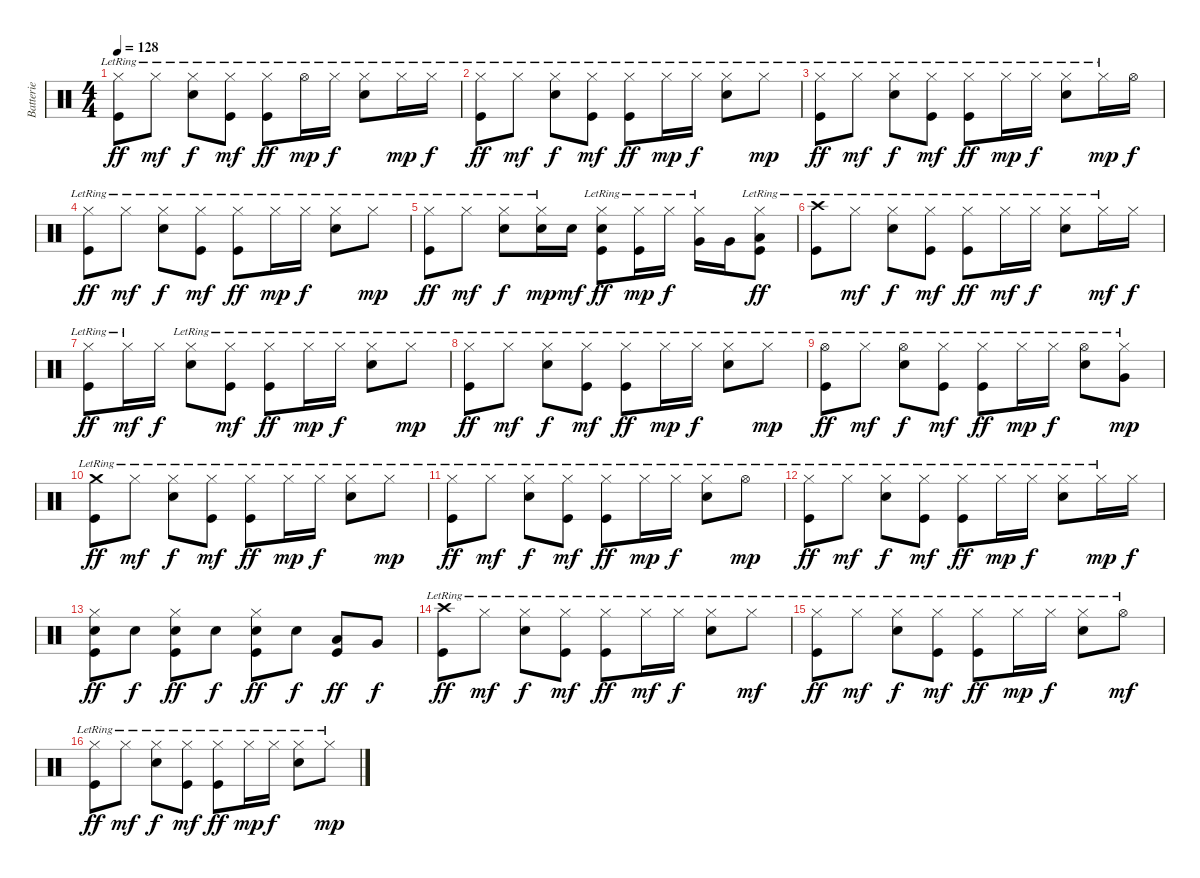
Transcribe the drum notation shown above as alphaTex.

\track ("Batterie" "Batterie") {instrument percussion}
\staff {score}
\articulation defaults
\ts (4 4)
\tempo 128
\clef neutral
\ks c
("Hi-Hat (closed)"{lr} "Kick (hit)"{lr}).8{dy ff} "Hi-Hat (closed)"{lr}.8{dy mf} ("Hi-Hat (closed)"{lr} "Snare (hit) 2"{lr}).8{dy f} ("Hi-Hat (closed)"{lr} "Kick (hit)"{lr}).8{dy mf} ("Hi-Hat (closed)"{lr} "Kick (hit)"{lr}).8{dy ff} "Hi-Hat (open)"{lr}.16{dy mp} "Hi-Hat (closed)"{lr}.16{dy f} ("Hi-Hat (closed)"{lr} "Snare (hit) 2"{lr}).8 "Hi-Hat (closed)"{lr}.16{dy mp} "Hi-Hat (closed)"{lr}.16{dy f} |
("Hi-Hat (closed)"{lr} "Kick (hit)"{lr}).8{dy ff} "Hi-Hat (closed)"{lr}.8{dy mf} ("Hi-Hat (closed)"{lr} "Snare (hit) 2"{lr}).8{dy f} ("Hi-Hat (closed)"{lr} "Kick (hit)"{lr}).8{dy mf} ("Hi-Hat (closed)"{lr} "Kick (hit)"{lr}).8{dy ff} "Hi-Hat (closed)"{lr}.16{dy mp} "Hi-Hat (closed)"{lr}.16{dy f} ("Hi-Hat (closed)"{lr} "Snare (hit) 2"{lr}).8 "Hi-Hat (closed)"{lr}.8{dy mp} |
("Hi-Hat (closed)"{lr} "Kick (hit)"{lr}).8{dy ff} "Hi-Hat (closed)"{lr}.8{dy mf} ("Hi-Hat (closed)"{lr} "Snare (hit) 2"{lr}).8{dy f} ("Hi-Hat (closed)"{lr} "Kick (hit)"{lr}).8{dy mf} ("Hi-Hat (closed)"{lr} "Kick (hit)"{lr}).8{dy ff} "Hi-Hat (closed)"{lr}.16{dy mp} "Hi-Hat (closed)"{lr}.16{dy f} ("Hi-Hat (closed)"{lr} "Snare (hit) 2"{lr}).8 "Hi-Hat (closed)"{lr}.16{dy mp} "Hi-Hat (open)".16{dy f} |
("Hi-Hat (closed)"{lr} "Kick (hit)"{lr}).8{dy ff} "Hi-Hat (closed)"{lr}.8{dy mf} ("Hi-Hat (closed)"{lr} "Snare (hit) 2"{lr}).8{dy f} ("Hi-Hat (closed)"{lr} "Kick (hit)"{lr}).8{dy mf} ("Hi-Hat (closed)"{lr} "Kick (hit)"{lr}).8{dy ff} "Hi-Hat (closed)"{lr}.16{dy mp} "Hi-Hat (closed)"{lr}.16{dy f} ("Hi-Hat (closed)"{lr} "Snare (hit) 2"{lr}).8 "Hi-Hat (closed)"{lr}.8{dy mp} |
("Hi-Hat (closed)"{lr} "Kick (hit)"{lr}).8{dy ff} "Hi-Hat (closed)"{lr}.8{dy mf} ("Hi-Hat (closed)"{lr} "Snare (hit) 2"{lr}).8{dy f} ("Hi-Hat (closed)"{lr} "Snare (hit) 2").16{dy mp} "Snare (hit) 2".16{dy mf} ("Hi-Hat (closed)"{lr} "Snare (hit) 2" "Kick (hit)"{lr}).8{dy ff} ("Hi-Hat (closed)"{lr} "Kick (hit)").16{dy mp} "Hi-Hat (closed)"{lr}.16{dy f} ("Very Low Tom (hit)" "Hi-Hat (closed)"{lr}).16 "Very Low Tom (hit)".16 ("Low Floor Tom (hit)" "Hi-Hat (closed)"{lr} "Kick (hit)"{lr}).8{dy ff} |
("Crash high (hit)"{lr} "Kick (hit)"{lr}).8 "Hi-Hat (closed)"{lr}.8{dy mf} ("Hi-Hat (closed)"{lr} "Snare (hit) 2"{lr}).8{dy f} ("Hi-Hat (closed)"{lr} "Kick (hit)"{lr}).8{dy mf} ("Hi-Hat (closed)"{lr} "Kick (hit)"{lr}).8{dy ff} "Hi-Hat (closed)"{lr}.16{dy mf} "Hi-Hat (closed)"{lr}.16{dy f} ("Hi-Hat (closed)"{lr} "Snare (hit) 2"{lr}).8 "Hi-Hat (closed)"{lr}.16{dy mf} "Hi-Hat (closed)".16{dy f} |
("Hi-Hat (closed)"{lr} "Kick (hit)"{lr}).8{dy ff} "Hi-Hat (closed)"{lr}.16{dy mf} "Hi-Hat (closed)".16{dy f} ("Hi-Hat (closed)"{lr} "Snare (hit) 2"{lr}).8 ("Hi-Hat (closed)"{lr} "Kick (hit)"{lr}).8{dy mf} ("Hi-Hat (closed)"{lr} "Kick (hit)"{lr}).8{dy ff} "Hi-Hat (closed)"{lr}.16{dy mp} "Hi-Hat (closed)"{lr}.16{dy f} ("Hi-Hat (closed)"{lr} "Snare (hit) 2"{lr}).8 "Hi-Hat (closed)"{lr}.8{dy mp} |
("Hi-Hat (closed)"{lr} "Kick (hit)"{lr}).8{dy ff} "Hi-Hat (closed)"{lr}.8{dy mf} ("Hi-Hat (closed)"{lr} "Snare (hit) 2"{lr}).8{dy f} ("Hi-Hat (closed)"{lr} "Kick (hit)"{lr}).8{dy mf} ("Hi-Hat (closed)"{lr} "Kick (hit)"{lr}).8{dy ff} "Hi-Hat (closed)"{lr}.16{dy mp} "Hi-Hat (closed)"{lr}.16{dy f} ("Hi-Hat (closed)"{lr} "Snare (hit) 2"{lr}).8 "Hi-Hat (closed)"{lr}.8{dy mp} |
("Hi-Hat (open)"{lr} "Kick (hit)"{lr}).8{dy ff} "Hi-Hat (closed)"{lr}.8{dy mf} ("Hi-Hat (open)"{lr} "Snare (hit) 2"{lr}).8{dy f} ("Hi-Hat (closed)"{lr} "Kick (hit)"{lr}).8{dy mf} ("Hi-Hat (closed)"{lr} "Kick (hit)"{lr}).8{dy ff} "Hi-Hat (closed)"{lr}.16{dy mp} "Hi-Hat (closed)"{lr}.16{dy f} ("Hi-Hat (open)"{lr} "Snare (hit) 2"{lr}).8 ("Very Low Tom (hit)" "Hi-Hat (closed)"{lr}).8{dy mp} |
("Crash medium (hit)" "Kick (hit)"{lr}).8{dy ff} "Hi-Hat (closed)"{lr}.8{dy mf} ("Hi-Hat (closed)"{lr} "Snare (hit) 2"{lr}).8{dy f} ("Hi-Hat (closed)"{lr} "Kick (hit)"{lr}).8{dy mf} ("Hi-Hat (closed)"{lr} "Kick (hit)"{lr}).8{dy ff} "Hi-Hat (closed)"{lr}.16{dy mp} "Hi-Hat (closed)"{lr}.16{dy f} ("Hi-Hat (closed)"{lr} "Snare (hit) 2"{lr}).8 "Hi-Hat (closed)"{lr}.8{dy mp} |
("Hi-Hat (closed)" "Kick (hit)"{lr}).8{dy ff} "Hi-Hat (closed)"{lr}.8{dy mf} ("Hi-Hat (closed)"{lr} "Snare (hit) 2"{lr}).8{dy f} ("Hi-Hat (closed)"{lr} "Kick (hit)"{lr}).8{dy mf} ("Hi-Hat (closed)"{lr} "Kick (hit)"{lr}).8{dy ff} "Hi-Hat (closed)"{lr}.16{dy mp} "Hi-Hat (closed)"{lr}.16{dy f} ("Hi-Hat (closed)"{lr} "Snare (hit) 2"{lr}).8 "Hi-Hat (open)"{lr}.8{dy mp} |
("Hi-Hat (closed)"{lr} "Kick (hit)"{lr}).8{dy ff} "Hi-Hat (closed)"{lr}.8{dy mf} ("Hi-Hat (closed)"{lr} "Snare (hit) 2"{lr}).8{dy f} ("Hi-Hat (closed)"{lr} "Kick (hit)"{lr}).8{dy mf} ("Hi-Hat (closed)"{lr} "Kick (hit)"{lr}).8{dy ff} "Hi-Hat (closed)"{lr}.16{dy mp} "Hi-Hat (closed)"{lr}.16{dy f} ("Hi-Hat (closed)"{lr} "Snare (hit) 2"{lr}).8 "Hi-Hat (closed)"{lr}.16{dy mp} "Hi-Hat (closed)".16{dy f} |
("Hi-Hat (closed)" "Snare (hit) 2" "Kick (hit)").8{dy ff} "Snare (hit) 2".8{dy f} ("Hi-Hat (closed)" "Snare (hit) 2" "Kick (hit)").8{dy ff} "Snare (hit) 2".8{dy f} ("Hi-Hat (closed)" "Snare (hit) 2" "Kick (hit)").8{dy ff} "Snare (hit) 2".8{dy f} ("Low Tom (hit)" "Kick (hit)").8{dy ff} "Very Low Tom (hit)".8{dy f} |
("Crash high (hit)"{lr} "Kick (hit)"{lr}).8{dy ff} "Hi-Hat (closed)"{lr}.8{dy mf} ("Hi-Hat (closed)"{lr} "Snare (hit) 2"{lr}).8{dy f} ("Hi-Hat (closed)"{lr} "Kick (hit)"{lr}).8{dy mf} ("Hi-Hat (closed)"{lr} "Kick (hit)"{lr}).8{dy ff} "Hi-Hat (closed)"{lr}.16{dy mf} "Hi-Hat (closed)"{lr}.16{dy f} ("Hi-Hat (closed)"{lr} "Snare (hit) 2"{lr}).8 "Hi-Hat (closed)"{lr}.8{dy mf} |
("Hi-Hat (closed)"{lr} "Kick (hit)"{lr}).8{dy ff} "Hi-Hat (closed)"{lr}.8{dy mf} ("Hi-Hat (closed)"{lr} "Snare (hit) 2"{lr}).8{dy f} ("Hi-Hat (closed)"{lr} "Kick (hit)"{lr}).8{dy mf} ("Hi-Hat (closed)"{lr} "Kick (hit)"{lr}).8{dy ff} "Hi-Hat (closed)"{lr}.16{dy mp} "Hi-Hat (closed)"{lr}.16{dy f} ("Hi-Hat (closed)"{lr} "Snare (hit) 2"{lr}).8 "Hi-Hat (open)"{lr}.8{dy mf} |
("Hi-Hat (closed)"{lr} "Kick (hit)"{lr}).8{dy ff} "Hi-Hat (closed)"{lr}.8{dy mf} ("Hi-Hat (closed)"{lr} "Snare (hit) 2"{lr}).8{dy f} ("Hi-Hat (closed)"{lr} "Kick (hit)"{lr}).8{dy mf} ("Hi-Hat (closed)"{lr} "Kick (hit)"{lr}).8{dy ff} "Hi-Hat (closed)"{lr}.16{dy mp} "Hi-Hat (closed)"{lr}.16{dy f} ("Hi-Hat (closed)"{lr} "Snare (hit) 2"{lr}).8 "Hi-Hat (closed)"{lr}.8{dy mp}
